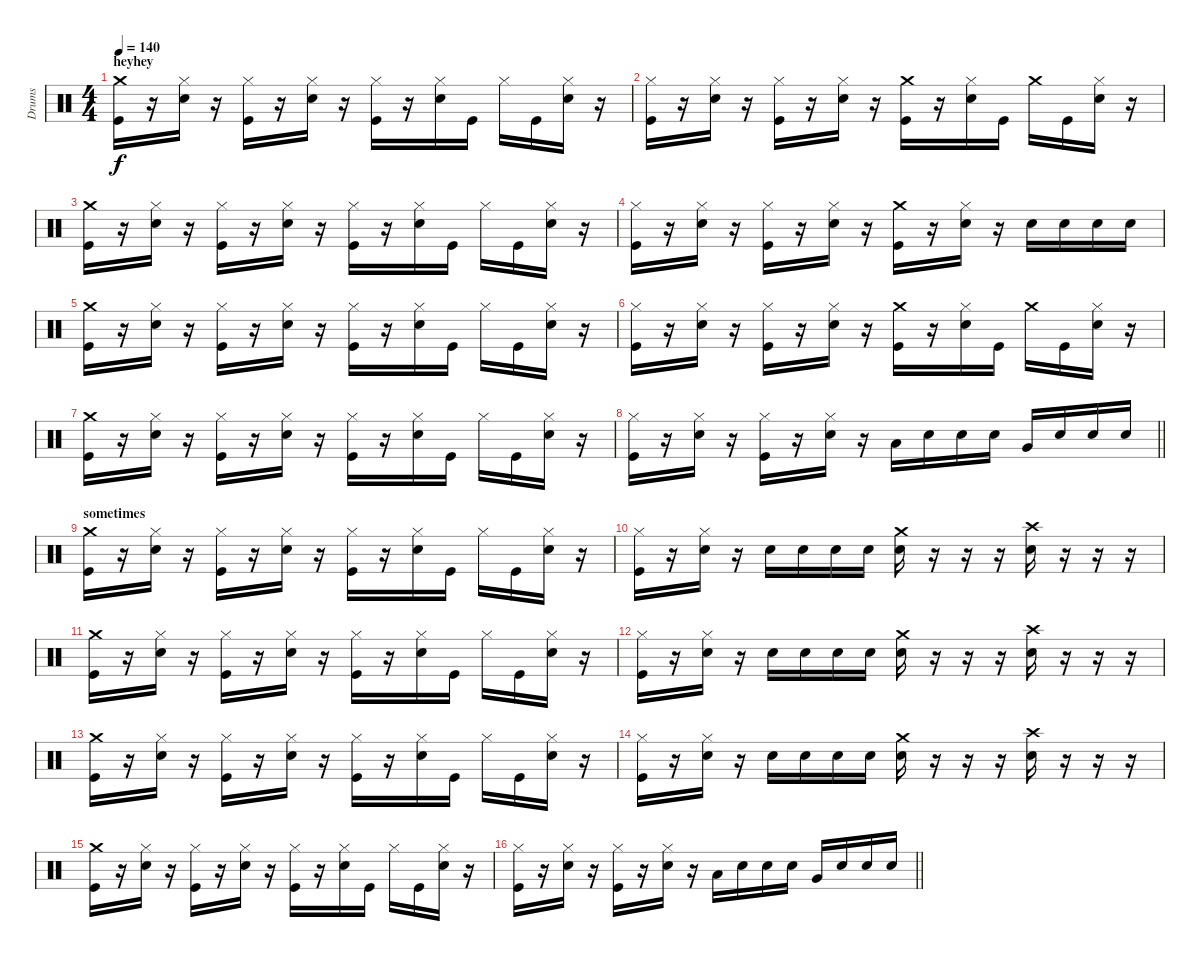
\track ("Drums" "Drums") {instrument percussion}
\staff {score}
\articulation defaults
\ts (4 4)
\section ("" "heyhey")
\tempo 140
\clef neutral
\ks c
("Crash medium (hit)" "Kick (hit)").16{dy f} r.16 ("Hi-Hat (closed)" "Snare (hit) 2").16 r.16 ("Hi-Hat (closed)" "Kick (hit)").16 r.16 ("Hi-Hat (closed)" "Snare (hit) 2").16 r.16 ("Hi-Hat (closed)" "Kick (hit)").16 r.16 ("Hi-Hat (closed)" "Snare (hit) 2").16 "Kick (hit)".16 "Hi-Hat (closed)".16 "Kick (hit)".16 ("Hi-Hat (closed)" "Snare (hit) 2").16 r.16 |
("Hi-Hat (closed)" "Kick (hit)").16 r.16 ("Hi-Hat (closed)" "Snare (hit) 2").16 r.16 ("Hi-Hat (closed)" "Kick (hit)").16 r.16 ("Hi-Hat (closed)" "Snare (hit) 2").16 r.16 ("Crash medium (hit)" "Kick (hit)").16 r.16 ("Hi-Hat (closed)" "Snare (hit) 2").16 "Kick (hit)".16 "Crash medium (hit)".16 "Kick (hit)".16 ("Hi-Hat (closed)" "Snare (hit) 2").16 r.16 |
("Crash medium (hit)" "Kick (hit)").16 r.16 ("Hi-Hat (closed)" "Snare (hit) 2").16 r.16 ("Hi-Hat (closed)" "Kick (hit)").16 r.16 ("Hi-Hat (closed)" "Snare (hit) 2").16 r.16 ("Hi-Hat (closed)" "Kick (hit)").16 r.16 ("Hi-Hat (closed)" "Snare (hit) 2").16 "Kick (hit)".16 "Hi-Hat (closed)".16 "Kick (hit)".16 ("Hi-Hat (closed)" "Snare (hit) 2").16 r.16 |
("Hi-Hat (closed)" "Kick (hit)").16 r.16 ("Hi-Hat (closed)" "Snare (hit) 2").16 r.16 ("Hi-Hat (closed)" "Kick (hit)").16 r.16 ("Hi-Hat (closed)" "Snare (hit) 2").16 r.16 ("Crash medium (hit)" "Kick (hit)").16 r.16 ("Hi-Hat (closed)" "Snare (hit) 2").16 r.16 "Snare (hit) 2".16 "Snare (hit) 2".16 "Snare (hit) 2".16 "Snare (hit) 2".16 |
("Crash medium (hit)" "Kick (hit)").16 r.16 ("Hi-Hat (closed)" "Snare (hit) 2").16 r.16 ("Hi-Hat (closed)" "Kick (hit)").16 r.16 ("Hi-Hat (closed)" "Snare (hit) 2").16 r.16 ("Hi-Hat (closed)" "Kick (hit)").16 r.16 ("Hi-Hat (closed)" "Snare (hit) 2").16 "Kick (hit)".16 "Hi-Hat (closed)".16 "Kick (hit)".16 ("Hi-Hat (closed)" "Snare (hit) 2").16 r.16 |
("Hi-Hat (closed)" "Kick (hit)").16 r.16 ("Hi-Hat (closed)" "Snare (hit) 2").16 r.16 ("Hi-Hat (closed)" "Kick (hit)").16 r.16 ("Hi-Hat (closed)" "Snare (hit) 2").16 r.16 ("Crash medium (hit)" "Kick (hit)").16 r.16 ("Hi-Hat (closed)" "Snare (hit) 2").16 "Kick (hit)".16 "Crash medium (hit)".16 "Kick (hit)".16 ("Hi-Hat (closed)" "Snare (hit) 2").16 r.16 |
("Crash medium (hit)" "Kick (hit)").16 r.16 ("Hi-Hat (closed)" "Snare (hit) 2").16 r.16 ("Hi-Hat (closed)" "Kick (hit)").16 r.16 ("Hi-Hat (closed)" "Snare (hit) 2").16 r.16 ("Hi-Hat (closed)" "Kick (hit)").16 r.16 ("Hi-Hat (closed)" "Snare (hit) 2").16 "Kick (hit)".16 "Hi-Hat (closed)".16 "Kick (hit)".16 ("Hi-Hat (closed)" "Snare (hit) 2").16 r.16 |
\barLineRight lightlight
("Hi-Hat (closed)" "Kick (hit)").16 r.16 ("Hi-Hat (closed)" "Snare (hit) 2").16 r.16 ("Hi-Hat (closed)" "Kick (hit)").16 r.16 ("Hi-Hat (closed)" "Snare (hit) 2").16 r.16 "Low Tom (hit)".16 "Snare (hit) 2".16 "Snare (hit) 2".16 "Snare (hit) 2".16 "Very Low Tom (hit)".16 "Snare (hit) 2".16 "Snare (hit) 2".16 "Snare (hit) 2".16 |
\section ("" "sometimes")
("Crash medium (hit)" "Kick (hit)").16 r.16 ("Hi-Hat (closed)" "Snare (hit) 2").16 r.16 ("Hi-Hat (closed)" "Kick (hit)").16 r.16 ("Hi-Hat (closed)" "Snare (hit) 2").16 r.16 ("Hi-Hat (closed)" "Kick (hit)").16 r.16 ("Hi-Hat (closed)" "Snare (hit) 2").16 "Kick (hit)".16 "Hi-Hat (closed)".16 "Kick (hit)".16 ("Hi-Hat (closed)" "Snare (hit) 2").16 r.16 |
("Hi-Hat (closed)" "Kick (hit)").16 r.16 ("Hi-Hat (closed)" "Snare (hit) 2").16 r.16 "Snare (hit) 2".16 "Snare (hit) 2".16 "Snare (hit) 2".16 "Snare (hit) 2".16 ("Crash medium (hit)" "Snare (hit) 2").16 r.16 r.16 r.16 ("Crash high (hit)" "Snare (hit) 2").16 r.16 r.16 r.16 |
("Crash medium (hit)" "Kick (hit)").16 r.16 ("Hi-Hat (closed)" "Snare (hit) 2").16 r.16 ("Hi-Hat (closed)" "Kick (hit)").16 r.16 ("Hi-Hat (closed)" "Snare (hit) 2").16 r.16 ("Hi-Hat (closed)" "Kick (hit)").16 r.16 ("Hi-Hat (closed)" "Snare (hit) 2").16 "Kick (hit)".16 "Hi-Hat (closed)".16 "Kick (hit)".16 ("Hi-Hat (closed)" "Snare (hit) 2").16 r.16 |
("Hi-Hat (closed)" "Kick (hit)").16 r.16 ("Hi-Hat (closed)" "Snare (hit) 2").16 r.16 "Snare (hit) 2".16 "Snare (hit) 2".16 "Snare (hit) 2".16 "Snare (hit) 2".16 ("Crash medium (hit)" "Snare (hit) 2").16 r.16 r.16 r.16 ("Crash high (hit)" "Snare (hit) 2").16 r.16 r.16 r.16 |
("Crash medium (hit)" "Kick (hit)").16 r.16 ("Hi-Hat (closed)" "Snare (hit) 2").16 r.16 ("Hi-Hat (closed)" "Kick (hit)").16 r.16 ("Hi-Hat (closed)" "Snare (hit) 2").16 r.16 ("Hi-Hat (closed)" "Kick (hit)").16 r.16 ("Hi-Hat (closed)" "Snare (hit) 2").16 "Kick (hit)".16 "Hi-Hat (closed)".16 "Kick (hit)".16 ("Hi-Hat (closed)" "Snare (hit) 2").16 r.16 |
("Hi-Hat (closed)" "Kick (hit)").16 r.16 ("Hi-Hat (closed)" "Snare (hit) 2").16 r.16 "Snare (hit) 2".16 "Snare (hit) 2".16 "Snare (hit) 2".16 "Snare (hit) 2".16 ("Crash medium (hit)" "Snare (hit) 2").16 r.16 r.16 r.16 ("Crash high (hit)" "Snare (hit) 2").16 r.16 r.16 r.16 |
("Crash medium (hit)" "Kick (hit)").16 r.16 ("Hi-Hat (closed)" "Snare (hit) 2").16 r.16 ("Hi-Hat (closed)" "Kick (hit)").16 r.16 ("Hi-Hat (closed)" "Snare (hit) 2").16 r.16 ("Hi-Hat (closed)" "Kick (hit)").16 r.16 ("Hi-Hat (closed)" "Snare (hit) 2").16 "Kick (hit)".16 "Hi-Hat (closed)".16 "Kick (hit)".16 ("Hi-Hat (closed)" "Snare (hit) 2").16 r.16 |
\barLineRight lightlight
("Hi-Hat (closed)" "Kick (hit)").16 r.16 ("Hi-Hat (closed)" "Snare (hit) 2").16 r.16 ("Hi-Hat (closed)" "Kick (hit)").16 r.16 ("Hi-Hat (closed)" "Snare (hit) 2").16 r.16 "Low Tom (hit)".16 "Snare (hit) 2".16 "Snare (hit) 2".16 "Snare (hit) 2".16 "Very Low Tom (hit)".16 "Snare (hit) 2".16 "Snare (hit) 2".16 "Snare (hit) 2".16
